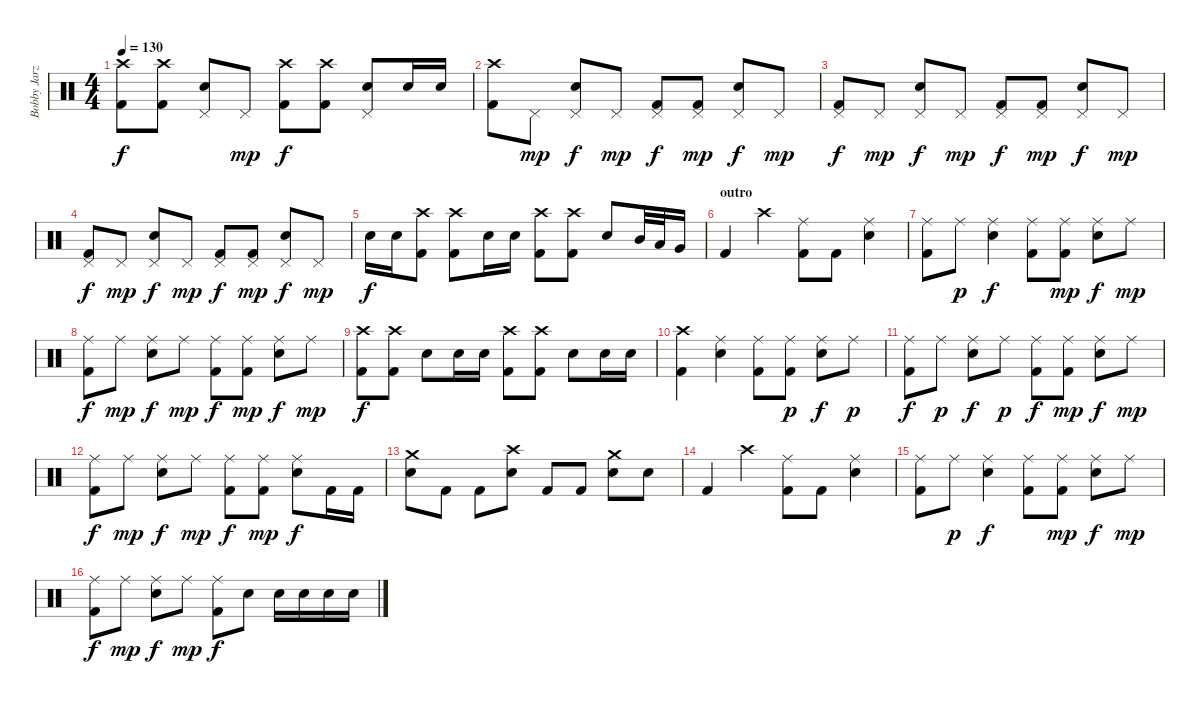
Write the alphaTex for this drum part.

\track ("Bobby Jarzombek" "Bobby Jarz") {instrument percussion}
\staff {score}
\articulation defaults
\ts (4 4)
\tempo 130
\clef neutral
\ks c
("Kick (hit) 2" "Crash high (hit)").8{dy f} ("Kick (hit) 2" "Crash high (hit)").8 ("Pedal Hi-Hat (hit)" "Snare (hit) 2").8 "Pedal Hi-Hat (hit)".8{dy mp} ("Kick (hit) 2" "Crash high (hit)").8{dy f} ("Kick (hit) 2" "Crash high (hit)").8 ("Pedal Hi-Hat (hit)" "Snare (hit) 2").8 "Snare (hit) 2".16 "Snare (hit) 2".16 |
("Kick (hit) 2" "Crash high (hit)").8 "Pedal Hi-Hat (hit)".8{dy mp} ("Pedal Hi-Hat (hit)" "Snare (hit) 2").8{dy f} "Pedal Hi-Hat (hit)".8{dy mp} ("Kick (hit) 2" "Pedal Hi-Hat (hit)").8{dy f} ("Kick (hit) 2" "Pedal Hi-Hat (hit)").8{dy mp} ("Pedal Hi-Hat (hit)" "Snare (hit) 2").8{dy f} "Pedal Hi-Hat (hit)".8{dy mp} |
("Kick (hit) 2" "Pedal Hi-Hat (hit)").8{dy f} "Pedal Hi-Hat (hit)".8{dy mp} ("Pedal Hi-Hat (hit)" "Snare (hit) 2").8{dy f} "Pedal Hi-Hat (hit)".8{dy mp} ("Kick (hit) 2" "Pedal Hi-Hat (hit)").8{dy f} ("Kick (hit) 2" "Pedal Hi-Hat (hit)").8{dy mp} ("Pedal Hi-Hat (hit)" "Snare (hit) 2").8{dy f} "Pedal Hi-Hat (hit)".8{dy mp} |
("Kick (hit) 2" "Pedal Hi-Hat (hit)").8{dy f} "Pedal Hi-Hat (hit)".8{dy mp} ("Pedal Hi-Hat (hit)" "Snare (hit) 2").8{dy f} "Pedal Hi-Hat (hit)".8{dy mp} ("Kick (hit) 2" "Pedal Hi-Hat (hit)").8{dy f} ("Kick (hit) 2" "Pedal Hi-Hat (hit)").8{dy mp} ("Pedal Hi-Hat (hit)" "Snare (hit) 2").8{dy f} "Pedal Hi-Hat (hit)".8{dy mp} |
"Snare (hit) 2".16{dy f} "Snare (hit) 2".16 ("Kick (hit) 2" "Crash high (hit)").8 ("Kick (hit) 2" "Crash high (hit)").8 "Snare (hit) 2".16 "Snare (hit) 2".16 ("Kick (hit) 2" "Crash high (hit)").8 ("Kick (hit) 2" "Crash high (hit)").8 "Snare (hit) 2".8 "Mid Tom (hit)".32 "Low Tom (hit)".32 "Very Low Tom (hit)".16 |
\section ("" "outro")
"Kick (hit) 2".4 "Crash high (hit)".4 ("Kick (hit) 2" "Ride (middle)").8 "Kick (hit) 2".8 ("Ride (middle)" "Snare (hit) 2").4 |
("Kick (hit) 2" "Ride (middle)").8 "Ride (middle)".8{dy p} ("Ride (middle)" "Snare (hit) 2").4{dy f} ("Kick (hit) 2" "Ride (middle)").8 ("Kick (hit) 2" "Ride (middle)").8{dy mp} ("Ride (middle)" "Snare (hit) 2").8{dy f} "Ride (middle)".8{dy mp} |
("Kick (hit) 2" "Ride (middle)").8{dy f} "Ride (middle)".8{dy mp} ("Ride (middle)" "Snare (hit) 2").8{dy f} "Ride (middle)".8{dy mp} ("Kick (hit) 2" "Ride (middle)").8{dy f} ("Kick (hit) 2" "Ride (middle)").8{dy mp} ("Ride (middle)" "Snare (hit) 2").8{dy f} "Ride (middle)".8{dy mp} |
("Kick (hit) 2" "Crash high (hit)").8{dy f} ("Kick (hit) 2" "Crash high (hit)").8 "Snare (hit) 2".8 "Snare (hit) 2".16 "Snare (hit) 2".16 ("Kick (hit) 2" "Crash high (hit)").8 ("Kick (hit) 2" "Crash high (hit)").8 "Snare (hit) 2".8 "Snare (hit) 2".16 "Snare (hit) 2".16 |
("Kick (hit) 2" "Crash high (hit)").4 ("Ride (middle)" "Snare (hit) 2").4 ("Kick (hit) 2" "Ride (middle)").8 ("Kick (hit) 2" "Ride (middle)").8{dy p} ("Ride (middle)" "Snare (hit) 2").8{dy f} "Ride (middle)".8{dy p} |
("Kick (hit) 2" "Ride (middle)").8{dy f} "Ride (middle)".8{dy p} ("Ride (middle)" "Snare (hit) 2").8{dy f} "Ride (middle)".8{dy p} ("Kick (hit) 2" "Ride (middle)").8{dy f} ("Kick (hit) 2" "Ride (middle)").8{dy mp} ("Ride (middle)" "Snare (hit) 2").8{dy f} "Ride (middle)".8{dy mp} |
("Kick (hit) 2" "Ride (middle)").8{dy f} "Ride (middle)".8{dy mp} ("Ride (middle)" "Snare (hit) 2").8{dy f} "Ride (middle)".8{dy mp} ("Kick (hit) 2" "Ride (middle)").8{dy f} ("Kick (hit) 2" "Ride (middle)").8{dy mp} ("Ride (middle)" "Snare (hit) 2").8{dy f} "Kick (hit) 2".16 "Kick (hit) 2".16 |
("Crash medium (hit)" "Snare (hit) 2").8 "Kick (hit) 2".8 "Kick (hit) 2".8 ("Crash high (hit)" "Snare (hit) 2").8 "Kick (hit) 2".8 "Kick (hit) 2".8 ("Crash medium (hit)" "Snare (hit) 2").8 "Snare (hit) 2".8 |
"Kick (hit) 2".4 "Crash high (hit)".4 ("Kick (hit) 2" "Ride (middle)").8 "Kick (hit) 2".8 ("Ride (middle)" "Snare (hit) 2").4 |
("Kick (hit) 2" "Ride (middle)").8 "Ride (middle)".8{dy p} ("Ride (middle)" "Snare (hit) 2").4{dy f} ("Kick (hit) 2" "Ride (middle)").8 ("Kick (hit) 2" "Ride (middle)").8{dy mp} ("Ride (middle)" "Snare (hit) 2").8{dy f} "Ride (middle)".8{dy mp} |
("Kick (hit) 2" "Ride (middle)").8{dy f} "Ride (middle)".8{dy mp} ("Ride (middle)" "Snare (hit) 2").8{dy f} "Ride (middle)".8{dy mp} ("Kick (hit) 2" "Ride (middle)").8{dy f} "Snare (hit) 2".8 "Snare (hit) 2".16 "Snare (hit) 2".16 "Snare (hit) 2".16 "Snare (hit) 2".16
